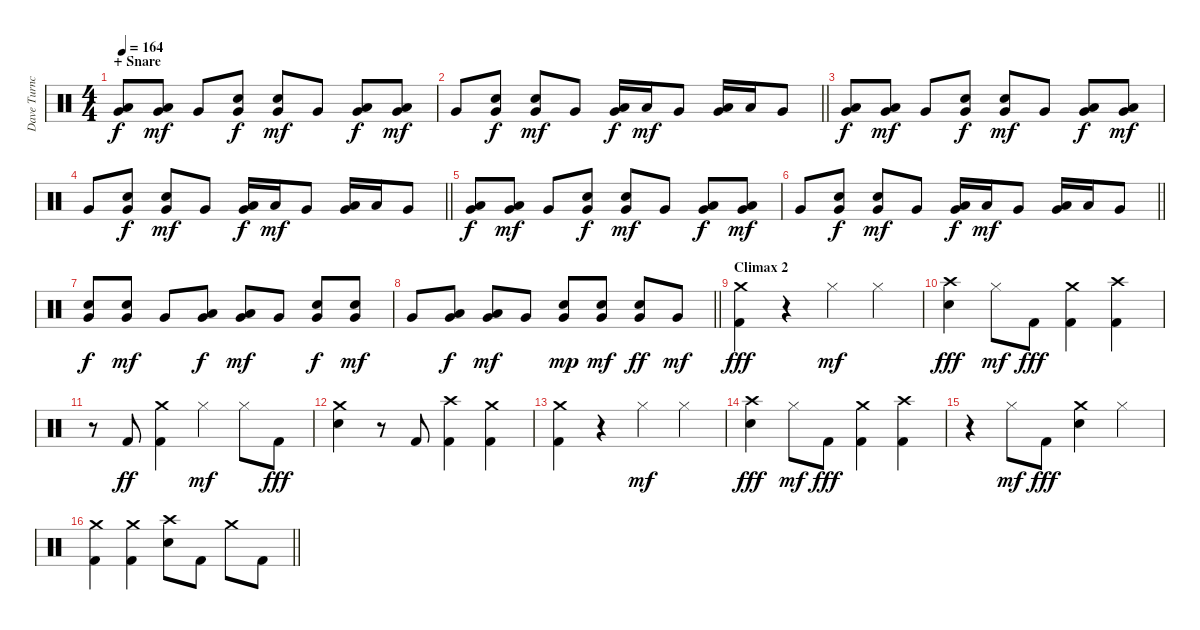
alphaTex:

\track ("Dave Turncrantz" "Dave Turnc") {instrument percussion}
\staff {score}
\articulation defaults
\ts (4 4)
\section ("" "+ Snare")
\tempo 164
\clef neutral
\ks c
("Low Tom (hit)" "Very Low Tom (hit)").8{dy f} ("Low Tom (hit)" "Very Low Tom (hit)").8{dy mf} "Very Low Tom (hit)".8 ("Electric Snare (hit)" "Very Low Tom (hit)").8{dy f} ("Electric Snare (hit)" "Very Low Tom (hit)").8{dy mf} "Very Low Tom (hit)".8 ("Low Tom (hit)" "Very Low Tom (hit)").8{dy f} ("Low Tom (hit)" "Very Low Tom (hit)").8{dy mf} |
\barLineRight lightlight "Very Low Tom (hit)".8
("Electric Snare (hit)" "Very Low Tom (hit)").8{dy f} ("Electric Snare (hit)" "Very Low Tom (hit)").8{dy mf} "Very Low Tom (hit)".8 ("Low Tom (hit)" "Very Low Tom (hit)").16{dy f} "Low Tom (hit)".16{dy mf} "Very Low Tom (hit)".8 ("Low Tom (hit)" "Very Low Tom (hit)").16 "Low Tom (hit)".16 "Very Low Tom (hit)".8 |
\section ("" "")
("Low Tom (hit)" "Very Low Tom (hit)").8{dy f} ("Low Tom (hit)" "Very Low Tom (hit)").8{dy mf} "Very Low Tom (hit)".8 ("Electric Snare (hit)" "Very Low Tom (hit)").8{dy f} ("Electric Snare (hit)" "Very Low Tom (hit)").8{dy mf} "Very Low Tom (hit)".8 ("Low Tom (hit)" "Very Low Tom (hit)").8{dy f} ("Low Tom (hit)" "Very Low Tom (hit)").8{dy mf} |
\barLineRight lightlight "Very Low Tom (hit)".8
("Electric Snare (hit)" "Very Low Tom (hit)").8{dy f} ("Electric Snare (hit)" "Very Low Tom (hit)").8{dy mf} "Very Low Tom (hit)".8 ("Low Tom (hit)" "Very Low Tom (hit)").16{dy f} "Low Tom (hit)".16{dy mf} "Very Low Tom (hit)".8 ("Low Tom (hit)" "Very Low Tom (hit)").16 "Low Tom (hit)".16 "Very Low Tom (hit)".8 |
\section ("" "")
("Low Tom (hit)" "Very Low Tom (hit)").8{dy f} ("Low Tom (hit)" "Very Low Tom (hit)").8{dy mf} "Very Low Tom (hit)".8 ("Electric Snare (hit)" "Very Low Tom (hit)").8{dy f} ("Electric Snare (hit)" "Very Low Tom (hit)").8{dy mf} "Very Low Tom (hit)".8 ("Low Tom (hit)" "Very Low Tom (hit)").8{dy f} ("Low Tom (hit)" "Very Low Tom (hit)").8{dy mf} |
\barLineRight lightlight "Very Low Tom (hit)".8
("Electric Snare (hit)" "Very Low Tom (hit)").8{dy f} ("Electric Snare (hit)" "Very Low Tom (hit)").8{dy mf} "Very Low Tom (hit)".8 ("Low Tom (hit)" "Very Low Tom (hit)").16{dy f} "Low Tom (hit)".16{dy mf} "Very Low Tom (hit)".8 ("Low Tom (hit)" "Very Low Tom (hit)").16 "Low Tom (hit)".16 "Very Low Tom (hit)".8 |
\section ("" "")
("Electric Snare (hit)" "Very Low Tom (hit)").8{dy f} ("Electric Snare (hit)" "Very Low Tom (hit)").8{dy mf} "Very Low Tom (hit)".8 ("Low Tom (hit)" "Very Low Tom (hit)").8{dy f} ("Low Tom (hit)" "Very Low Tom (hit)").8{dy mf} "Very Low Tom (hit)".8 ("Electric Snare (hit)" "Very Low Tom (hit)").8{dy f} ("Electric Snare (hit)" "Very Low Tom (hit)").8{dy mf} |
\barLineRight lightlight "Very Low Tom (hit)".8
("Low Tom (hit)" "Very Low Tom (hit)").8{dy f} ("Low Tom (hit)" "Very Low Tom (hit)").8{dy mf} "Very Low Tom (hit)".8 ("Electric Snare (hit)" "Very Low Tom (hit)").8{dy mp} ("Electric Snare (hit)" "Very Low Tom (hit)").8{dy mf} ("Electric Snare (hit)" "Very Low Tom (hit)").8{dy ff} "Very Low Tom (hit)".8{dy mf} |
\section ("" "Climax 2")
("Crash medium (hit)" "Kick (hit) 2").4{dy fff} r.4 "Hi-Hat (closed)".4{dy mf} "Hi-Hat (closed)".4 |
("Crash high (hit)" "Electric Snare (hit)").4{dy fff} "Hi-Hat (closed)".8{dy mf} "Kick (hit) 2".8{dy fff} ("Crash medium (hit)" "Kick (hit) 2").4 ("Crash high (hit)" "Kick (hit) 2").4 |
r.8 "Kick (hit) 2".8{dy ff} ("Crash medium (hit)" "Kick (hit) 2").4 "Hi-Hat (closed)".4{dy mf} "Hi-Hat (closed)".8 "Kick (hit) 2".8{dy fff} |
("Crash medium (hit)" "Electric Snare (hit)").4 r.8 "Kick (hit) 2".8 ("Crash high (hit)" "Kick (hit) 2").4 ("Crash medium (hit)" "Kick (hit) 2").4 |
("Crash medium (hit)" "Kick (hit) 2").4 r.4 "Hi-Hat (closed)".4{dy mf} "Hi-Hat (closed)".4 |
("Crash high (hit)" "Electric Snare (hit)").4{dy fff} "Hi-Hat (closed)".8{dy mf} "Kick (hit) 2".8{dy fff} ("Crash medium (hit)" "Kick (hit) 2").4 ("Crash high (hit)" "Kick (hit) 2").4 |
r.4 "Hi-Hat (closed)".8{dy mf} "Kick (hit) 2".8{dy fff} ("Crash medium (hit)" "Electric Snare (hit)").4 "Hi-Hat (closed)".4 |
\barLineRight lightlight
("Crash medium (hit)" "Kick (hit) 2").4 ("Crash medium (hit)" "Kick (hit) 2").4 ("Crash high (hit)" "Electric Snare (hit)").8 "Kick (hit) 2".8 "Crash medium (hit)".8 "Kick (hit) 2".8
